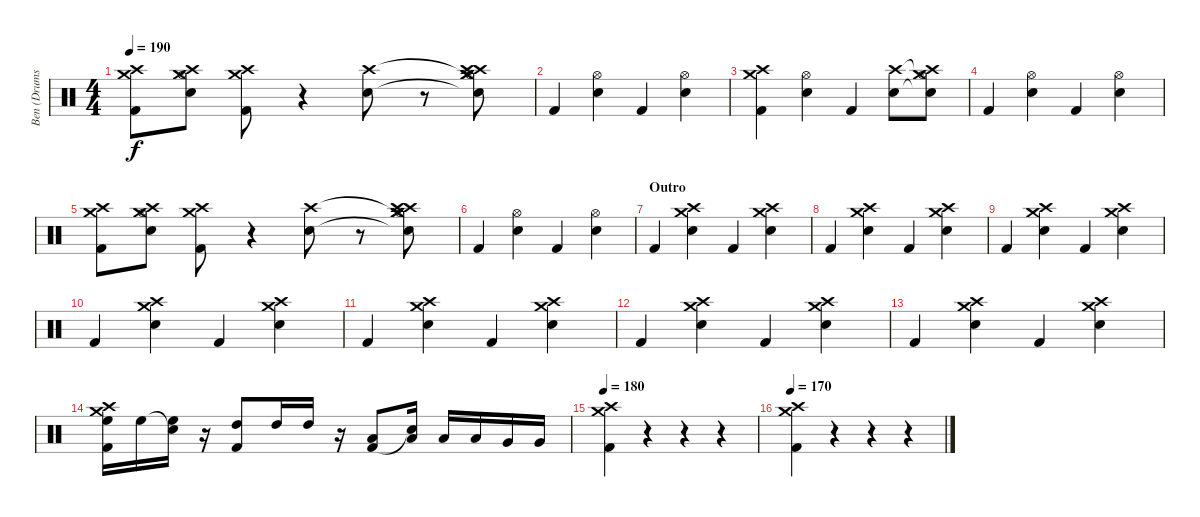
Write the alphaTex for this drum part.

\track ("Ben (Drums)" "Ben (Drums") {instrument percussion}
\staff {score}
\articulation defaults
\ts (4 4)
\tempo 190
\clef neutral
\ks c
("Kick (hit) 2" "Crash medium (hit)" "Crash high (hit)").8{dy f} ("Snare (hit) 2" "Hi-Hat (open)" "Crash medium (hit)" "Crash high (hit)").8 ("Kick (hit) 2" "Crash medium (hit)" "Crash high (hit)").8 r.4 ("Snare (hit) 2" "Crash high (hit)").8 r.8 ("Snare (hit) 2"{t} "Hi-Hat (open)"{t} "Crash medium (hit)" "Crash high (hit)" "Crash medium (hit)" "Crash high (hit)").8 |
"Kick (hit) 2".4 ("Snare (hit) 2" "Hi-Hat (open)").4 "Kick (hit) 2".4 ("Snare (hit) 2" "Hi-Hat (open)").4 |
("Kick (hit) 2" "Crash medium (hit)" "Crash high (hit)").4 ("Snare (hit) 2" "Hi-Hat (open)").4 "Kick (hit) 2".4 ("Snare (hit) 2" "Crash high (hit)").8 ("Snare (hit) 2"{t} "Hi-Hat (open)"{t} "Crash medium (hit)" "Crash high (hit)").8 |
"Kick (hit) 2".4 ("Snare (hit) 2" "Hi-Hat (open)").4 "Kick (hit) 2".4 ("Snare (hit) 2" "Hi-Hat (open)").4 |
("Kick (hit) 2" "Crash medium (hit)" "Crash high (hit)").8 ("Snare (hit) 2" "Hi-Hat (open)" "Crash medium (hit)" "Crash high (hit)").8 ("Kick (hit) 2" "Crash medium (hit)" "Crash high (hit)").8 r.4 ("Snare (hit) 2" "Crash high (hit)").8 r.8 ("Snare (hit) 2"{t} "Hi-Hat (open)"{t} "Crash medium (hit)" "Crash high (hit)" "Crash medium (hit)" "Crash high (hit)").8 |
"Kick (hit) 2".4 ("Snare (hit) 2" "Hi-Hat (open)").4 "Kick (hit) 2".4 ("Snare (hit) 2" "Hi-Hat (open)").4 |
\section ("" "Outro")
"Kick (hit) 2".4 ("Snare (hit) 2" "Crash medium (hit)" "Crash high (hit)").4 "Kick (hit) 2".4 ("Snare (hit) 2" "Crash medium (hit)" "Crash high (hit)").4 |
"Kick (hit) 2".4 ("Snare (hit) 2" "Crash medium (hit)" "Crash high (hit)").4 "Kick (hit) 2".4 ("Snare (hit) 2" "Crash medium (hit)" "Crash high (hit)").4 |
"Kick (hit) 2".4 ("Snare (hit) 2" "Crash medium (hit)" "Crash high (hit)").4 "Kick (hit) 2".4 ("Snare (hit) 2" "Crash medium (hit)" "Crash high (hit)").4 |
"Kick (hit) 2".4 ("Snare (hit) 2" "Crash medium (hit)" "Crash high (hit)").4 "Kick (hit) 2".4 ("Snare (hit) 2" "Crash medium (hit)" "Crash high (hit)").4 |
"Kick (hit) 2".4 ("Snare (hit) 2" "Crash medium (hit)" "Crash high (hit)").4 "Kick (hit) 2".4 ("Snare (hit) 2" "Crash medium (hit)" "Crash high (hit)").4 |
"Kick (hit) 2".4 ("Snare (hit) 2" "Crash medium (hit)" "Crash high (hit)").4 "Kick (hit) 2".4 ("Snare (hit) 2" "Crash medium (hit)" "Crash high (hit)").4 |
"Kick (hit) 2".4 ("Snare (hit) 2" "Crash medium (hit)" "Crash high (hit)").4 "Kick (hit) 2".4 ("Snare (hit) 2" "Crash medium (hit)" "Crash high (hit)").4 |
("Kick (hit) 2" "High Floor Tom (hit)" "Crash high (hit)" "Crash medium (hit)").16{volume 14} "High Floor Tom (hit)".16 ("Snare (hit)"{t} "High Floor Tom (hit)").16 r.16 ("Kick (hit) 2" "High Tom (hit)").8 "High Tom (hit)".16 "High Tom (hit)".16 r.16 ("Kick (hit) 2" "Low Tom (hit)").8 ("Snare (hit)"{t} "Low Tom (hit)").16 "Low Tom (hit)".16 "Low Tom (hit)".16 "Very Low Tom (hit)".16 "Very Low Tom (hit)".16 |
\tempo 180
("Kick (hit) 2" "Crash medium (hit)" "Crash high (hit)").4 r.4 r.4 r.4 |
\tempo 170
("Kick (hit) 2" "Crash medium (hit)" "Crash high (hit)").4 r.4 r.4 r.4
